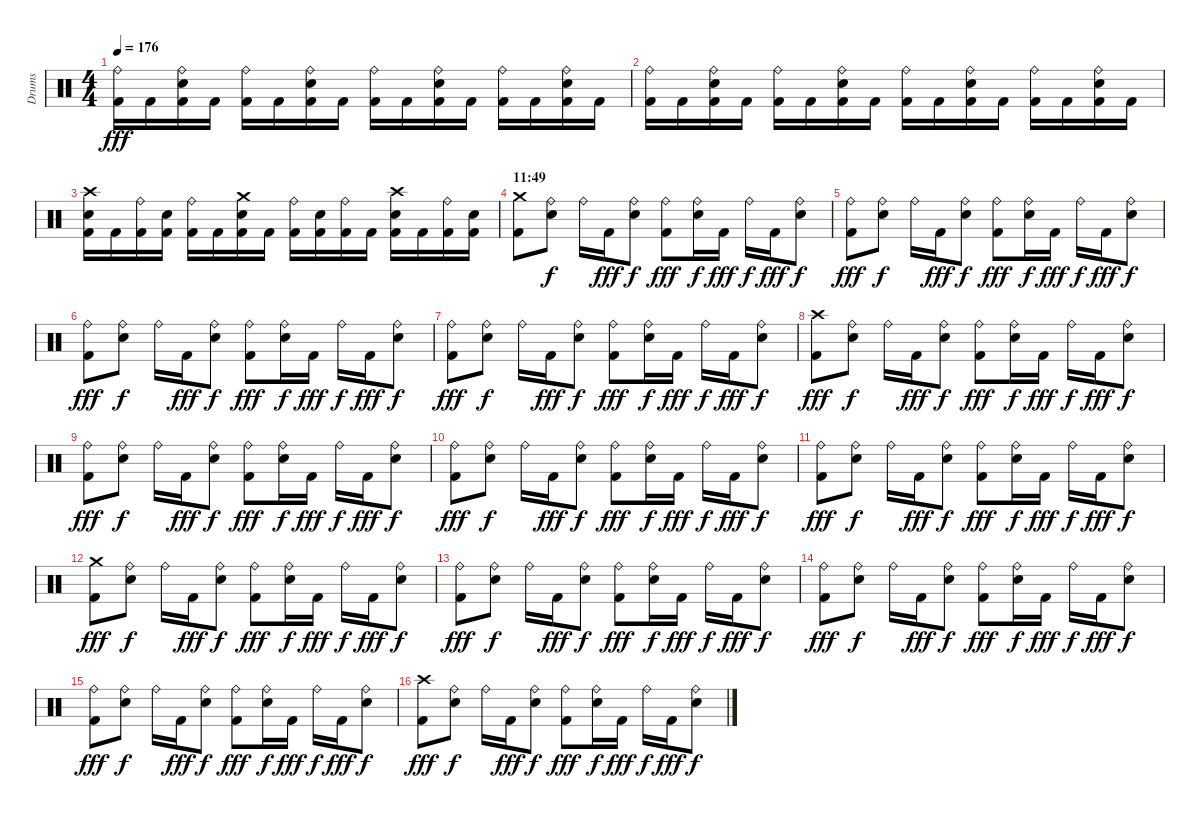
\track ("Drums" "Drums") {instrument percussion}
\staff {score}
\articulation defaults
\ts (4 4)
\tempo 176
\clef neutral
\ks c
("Ride (bell)" "Kick (hit) 2").16{dy fff} "Kick (hit) 2".16 ("Ride (bell)" "Snare (hit) 2" "Kick (hit) 2").16 "Kick (hit) 2".16 ("Ride (bell)" "Kick (hit) 2").16 "Kick (hit) 2".16 ("Ride (bell)" "Snare (hit) 2" "Kick (hit) 2").16 "Kick (hit) 2".16 ("Ride (bell)" "Kick (hit) 2").16 "Kick (hit) 2".16 ("Ride (bell)" "Snare (hit) 2" "Kick (hit) 2").16 "Kick (hit) 2".16 ("Ride (bell)" "Kick (hit) 2").16 "Kick (hit) 2".16 ("Ride (bell)" "Snare (hit) 2" "Kick (hit) 2").16 "Kick (hit) 2".16 |
("Ride (bell)" "Kick (hit) 2").16 "Kick (hit) 2".16 ("Ride (bell)" "Snare (hit) 2" "Kick (hit) 2").16 "Kick (hit) 2".16 ("Ride (bell)" "Kick (hit) 2").16 "Kick (hit) 2".16 ("Ride (bell)" "Snare (hit) 2" "Kick (hit) 2").16 "Kick (hit) 2".16 ("Ride (bell)" "Kick (hit) 2").16 "Kick (hit) 2".16 ("Ride (bell)" "Snare (hit) 2" "Kick (hit) 2").16 "Kick (hit) 2".16 ("Ride (bell)" "Kick (hit) 2").16 "Kick (hit) 2".16 ("Ride (bell)" "Snare (hit) 2" "Kick (hit) 2").16 "Kick (hit) 2".16 |
("Crash high (hit)" "Snare (hit) 2" "Kick (hit) 2").16 "Kick (hit) 2".16 ("Ride (bell)" "Kick (hit) 2").16 ("Snare (hit) 2" "Kick (hit) 2").16 ("Ride (bell)" "Kick (hit) 2").16 "Kick (hit) 2".16 ("Crash medium (hit)" "Snare (hit) 2" "Kick (hit) 2").16 "Kick (hit) 2".16 ("Ride (bell)" "Kick (hit) 2").16 ("Snare (hit) 2" "Kick (hit) 2").16 ("Ride (bell)" "Kick (hit) 2").16 "Kick (hit) 2".16 ("Crash high (hit)" "Snare (hit) 2" "Kick (hit) 2").16 "Kick (hit) 2".16 ("Ride (bell)" "Kick (hit) 2").16 ("Snare (hit) 2" "Kick (hit) 2").16 |
\section ("" "11:49")
("Crash medium (hit)" "Kick (hit) 2").8 ("Ride (bell)" "Snare (hit) 2").8{dy f} "Ride (bell)".16 "Kick (hit) 2".16{dy fff} ("Ride (bell)" "Snare (hit) 2").8{dy f} ("Ride (bell)" "Kick (hit) 2").8{dy fff} ("Ride (bell)" "Snare (hit) 2").16{dy f} "Kick (hit) 2".16{dy fff} "Ride (bell)".16{dy f} "Kick (hit) 2".16{dy fff} ("Ride (bell)" "Snare (hit) 2").8{dy f} |
("Ride (bell)" "Kick (hit) 2").8{dy fff} ("Ride (bell)" "Snare (hit) 2").8{dy f} "Ride (bell)".16 "Kick (hit) 2".16{dy fff} ("Ride (bell)" "Snare (hit) 2").8{dy f} ("Ride (bell)" "Kick (hit) 2").8{dy fff} ("Ride (bell)" "Snare (hit) 2").16{dy f} "Kick (hit) 2".16{dy fff} "Ride (bell)".16{dy f} "Kick (hit) 2".16{dy fff} ("Ride (bell)" "Snare (hit) 2").8{dy f} |
("Ride (bell)" "Kick (hit) 2").8{dy fff} ("Ride (bell)" "Snare (hit) 2").8{dy f} "Ride (bell)".16 "Kick (hit) 2".16{dy fff} ("Ride (bell)" "Snare (hit) 2").8{dy f} ("Ride (bell)" "Kick (hit) 2").8{dy fff} ("Ride (bell)" "Snare (hit) 2").16{dy f} "Kick (hit) 2".16{dy fff} "Ride (bell)".16{dy f} "Kick (hit) 2".16{dy fff} ("Ride (bell)" "Snare (hit) 2").8{dy f} |
("Ride (bell)" "Kick (hit) 2").8{dy fff} ("Ride (bell)" "Snare (hit) 2").8{dy f} "Ride (bell)".16 "Kick (hit) 2".16{dy fff} ("Ride (bell)" "Snare (hit) 2").8{dy f} ("Ride (bell)" "Kick (hit) 2").8{dy fff} ("Ride (bell)" "Snare (hit) 2").16{dy f} "Kick (hit) 2".16{dy fff} "Ride (bell)".16{dy f} "Kick (hit) 2".16{dy fff} ("Ride (bell)" "Snare (hit) 2").8{dy f} |
("Crash high (hit)" "Kick (hit) 2").8{dy fff} ("Ride (bell)" "Snare (hit) 2").8{dy f} "Ride (bell)".16 "Kick (hit) 2".16{dy fff} ("Ride (bell)" "Snare (hit) 2").8{dy f} ("Ride (bell)" "Kick (hit) 2").8{dy fff} ("Ride (bell)" "Snare (hit) 2").16{dy f} "Kick (hit) 2".16{dy fff} "Ride (bell)".16{dy f} "Kick (hit) 2".16{dy fff} ("Ride (bell)" "Snare (hit) 2").8{dy f} |
("Ride (bell)" "Kick (hit) 2").8{dy fff} ("Ride (bell)" "Snare (hit) 2").8{dy f} "Ride (bell)".16 "Kick (hit) 2".16{dy fff} ("Ride (bell)" "Snare (hit) 2").8{dy f} ("Ride (bell)" "Kick (hit) 2").8{dy fff} ("Ride (bell)" "Snare (hit) 2").16{dy f} "Kick (hit) 2".16{dy fff} "Ride (bell)".16{dy f} "Kick (hit) 2".16{dy fff} ("Ride (bell)" "Snare (hit) 2").8{dy f} |
("Ride (bell)" "Kick (hit) 2").8{dy fff} ("Ride (bell)" "Snare (hit) 2").8{dy f} "Ride (bell)".16 "Kick (hit) 2".16{dy fff} ("Ride (bell)" "Snare (hit) 2").8{dy f} ("Ride (bell)" "Kick (hit) 2").8{dy fff} ("Ride (bell)" "Snare (hit) 2").16{dy f} "Kick (hit) 2".16{dy fff} "Ride (bell)".16{dy f} "Kick (hit) 2".16{dy fff} ("Ride (bell)" "Snare (hit) 2").8{dy f} |
("Ride (bell)" "Kick (hit) 2").8{dy fff} ("Ride (bell)" "Snare (hit) 2").8{dy f} "Ride (bell)".16 "Kick (hit) 2".16{dy fff} ("Ride (bell)" "Snare (hit) 2").8{dy f} ("Ride (bell)" "Kick (hit) 2").8{dy fff} ("Ride (bell)" "Snare (hit) 2").16{dy f} "Kick (hit) 2".16{dy fff} "Ride (bell)".16{dy f} "Kick (hit) 2".16{dy fff} ("Ride (bell)" "Snare (hit) 2").8{dy f} |
("Crash medium (hit)" "Kick (hit) 2").8{dy fff} ("Ride (bell)" "Snare (hit) 2").8{dy f} "Ride (bell)".16 "Kick (hit) 2".16{dy fff} ("Ride (bell)" "Snare (hit) 2").8{dy f} ("Ride (bell)" "Kick (hit) 2").8{dy fff} ("Ride (bell)" "Snare (hit) 2").16{dy f} "Kick (hit) 2".16{dy fff} "Ride (bell)".16{dy f} "Kick (hit) 2".16{dy fff} ("Ride (bell)" "Snare (hit) 2").8{dy f} |
("Ride (bell)" "Kick (hit) 2").8{dy fff} ("Ride (bell)" "Snare (hit) 2").8{dy f} "Ride (bell)".16 "Kick (hit) 2".16{dy fff} ("Ride (bell)" "Snare (hit) 2").8{dy f} ("Ride (bell)" "Kick (hit) 2").8{dy fff} ("Ride (bell)" "Snare (hit) 2").16{dy f} "Kick (hit) 2".16{dy fff} "Ride (bell)".16{dy f} "Kick (hit) 2".16{dy fff} ("Ride (bell)" "Snare (hit) 2").8{dy f} |
("Ride (bell)" "Kick (hit) 2").8{dy fff} ("Ride (bell)" "Snare (hit) 2").8{dy f} "Ride (bell)".16 "Kick (hit) 2".16{dy fff} ("Ride (bell)" "Snare (hit) 2").8{dy f} ("Ride (bell)" "Kick (hit) 2").8{dy fff} ("Ride (bell)" "Snare (hit) 2").16{dy f} "Kick (hit) 2".16{dy fff} "Ride (bell)".16{dy f} "Kick (hit) 2".16{dy fff} ("Ride (bell)" "Snare (hit) 2").8{dy f} |
("Ride (bell)" "Kick (hit) 2").8{dy fff} ("Ride (bell)" "Snare (hit) 2").8{dy f} "Ride (bell)".16 "Kick (hit) 2".16{dy fff} ("Ride (bell)" "Snare (hit) 2").8{dy f} ("Ride (bell)" "Kick (hit) 2").8{dy fff} ("Ride (bell)" "Snare (hit) 2").16{dy f} "Kick (hit) 2".16{dy fff} "Ride (bell)".16{dy f} "Kick (hit) 2".16{dy fff} ("Ride (bell)" "Snare (hit) 2").8{dy f} |
("Crash high (hit)" "Kick (hit) 2").8{dy fff} ("Ride (bell)" "Snare (hit) 2").8{dy f} "Ride (bell)".16 "Kick (hit) 2".16{dy fff} ("Ride (bell)" "Snare (hit) 2").8{dy f} ("Ride (bell)" "Kick (hit) 2").8{dy fff} ("Ride (bell)" "Snare (hit) 2").16{dy f} "Kick (hit) 2".16{dy fff} "Ride (bell)".16{dy f} "Kick (hit) 2".16{dy fff} ("Ride (bell)" "Snare (hit) 2").8{dy f}
